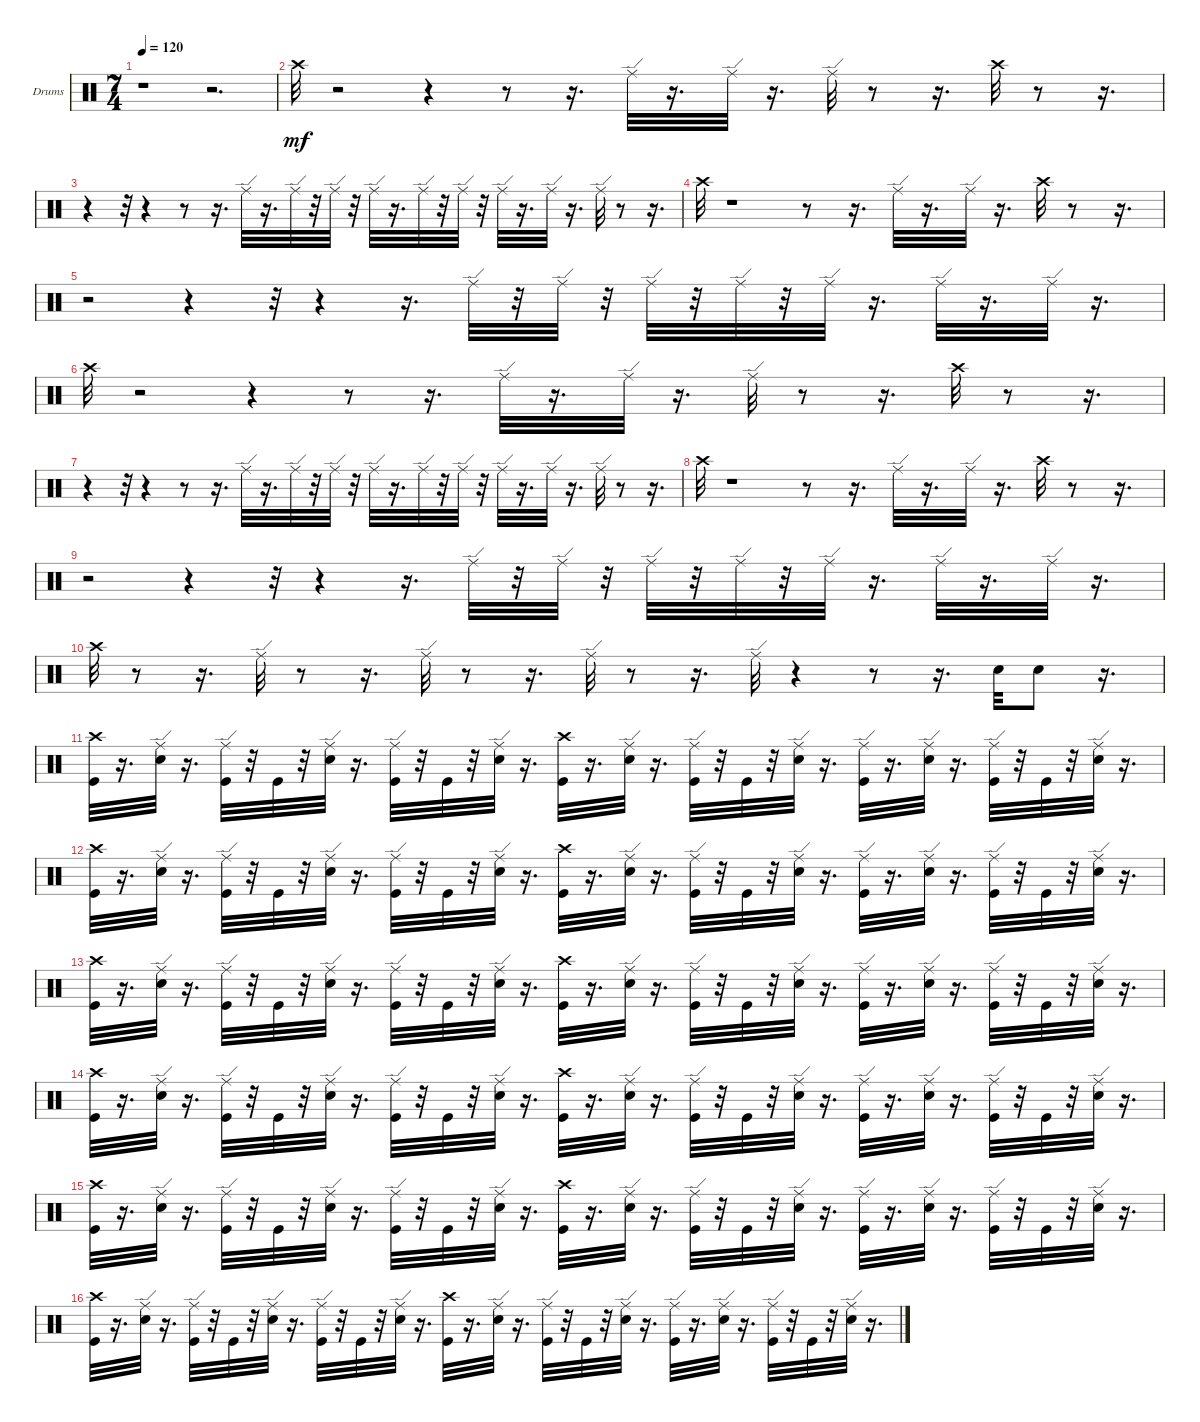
\bracketExtendMode groupsimilarinstruments
\firstSystemTrackNameOrientation horizontal
\otherSystemsTrackNameOrientation horizontal
\track ("" "Drums") {instrument percussion}
\staff {score}
\articulation defaults
\ts (7 4)
\tempo 120
\clef neutral
\ks c
r.1{dy mf} r.2{d} |
"Crash high (hit)".32 r.2 r.4 r.8 r.16{d} "Ride (edge)".32 r.16{d} "Ride (edge)".32 r.16{d} "Ride (edge)".32 r.8 r.16{d} "Crash high (hit)".32 r.8 r.16{d} |
r.4 r.32 r.4 r.8 r.16{d} "Ride (edge)".32 r.16{d} "Ride (edge)".32 r.32 "Ride (edge)".32 r.32 "Ride (edge)".32 r.16{d} "Ride (edge)".32 r.32 "Ride (edge)".32 r.32 "Ride (edge)".32 r.16{d} "Ride (edge)".32 r.16{d} "Ride (edge)".32 r.8 r.16{d} |
"Crash high (hit)".32 r.1 r.8 r.16{d} "Ride (edge)".32 r.16{d} "Ride (edge)".32 r.16{d} "Crash high (hit)".32 r.8 r.16{d} |
r.2 r.4 r.32 r.4 r.16{d} "Ride (edge)".32 r.32 "Ride (edge)".32 r.32 "Ride (edge)".32 r.32 "Ride (edge)".32 r.32 "Ride (edge)".32 r.16{d} "Ride (edge)".32 r.16{d} "Ride (edge)".32 r.16{d} |
"Crash high (hit)".32 r.2 r.4 r.8 r.16{d} "Ride (edge)".32 r.16{d} "Ride (edge)".32 r.16{d} "Ride (edge)".32 r.8 r.16{d} "Crash high (hit)".32 r.8 r.16{d} |
r.4 r.32 r.4 r.8 r.16{d} "Ride (edge)".32 r.16{d} "Ride (edge)".32 r.32 "Ride (edge)".32 r.32 "Ride (edge)".32 r.16{d} "Ride (edge)".32 r.32 "Ride (edge)".32 r.32 "Ride (edge)".32 r.16{d} "Ride (edge)".32 r.16{d} "Ride (edge)".32 r.8 r.16{d} |
"Crash high (hit)".32 r.1 r.8 r.16{d} "Ride (edge)".32 r.16{d} "Ride (edge)".32 r.16{d} "Crash high (hit)".32 r.8 r.16{d} |
r.2 r.4 r.32 r.4 r.16{d} "Ride (edge)".32 r.32 "Ride (edge)".32 r.32 "Ride (edge)".32 r.32 "Ride (edge)".32 r.32 "Ride (edge)".32 r.16{d} "Ride (edge)".32 r.16{d} "Ride (edge)".32 r.16{d} |
"Crash high (hit)".32 r.8 r.16{d} "Ride (edge)".32 r.8 r.16{d} "Ride (edge)".32 r.8 r.16{d} "Ride (edge)".32 r.8 r.16{d} "Ride (edge)".32 r.4 r.8 r.16{d} "Snare (hit) 2".32 "Snare (hit) 2".8 r.16{d} |
("Crash high (hit)" "Kick (hit)").32 r.16{d} ("Snare (hit) 2" "Ride (edge)").32 r.16{d} ("Kick (hit)" "Ride (edge)").32 r.32 "Kick (hit)".32 r.32 ("Snare (hit) 2" "Ride (edge)").32 r.16{d} ("Kick (hit)" "Ride (edge)").32 r.32 "Kick (hit)".32 r.32 ("Ride (edge)" "Snare (hit) 2").32 r.16{d} ("Crash high (hit)" "Kick (hit)").32 r.16{d} ("Snare (hit) 2" "Ride (edge)").32 r.16{d} ("Kick (hit)" "Ride (edge)").32 r.32 "Kick (hit)".32 r.32 ("Snare (hit) 2" "Ride (edge)").32 r.16{d} ("Kick (hit)" "Ride (edge)").32 r.16{d} ("Snare (hit) 2" "Ride (edge)").32 r.16{d} ("Kick (hit)" "Ride (edge)").32 r.32 "Kick (hit)".32 r.32 ("Snare (hit) 2" "Ride (edge)").32 r.16{d} |
("Crash high (hit)" "Kick (hit)").32 r.16{d} ("Snare (hit) 2" "Ride (edge)").32 r.16{d} ("Kick (hit)" "Ride (edge)").32 r.32 "Kick (hit)".32 r.32 ("Snare (hit) 2" "Ride (edge)").32 r.16{d} ("Kick (hit)" "Ride (edge)").32 r.32 "Kick (hit)".32 r.32 ("Ride (edge)" "Snare (hit) 2").32 r.16{d} ("Crash high (hit)" "Kick (hit)").32 r.16{d} ("Snare (hit) 2" "Ride (edge)").32 r.16{d} ("Kick (hit)" "Ride (edge)").32 r.32 "Kick (hit)".32 r.32 ("Snare (hit) 2" "Ride (edge)").32 r.16{d} ("Kick (hit)" "Ride (edge)").32 r.16{d} ("Snare (hit) 2" "Ride (edge)").32 r.16{d} ("Kick (hit)" "Ride (edge)").32 r.32 "Kick (hit)".32 r.32 ("Snare (hit) 2" "Ride (edge)").32 r.16{d} |
("Crash high (hit)" "Kick (hit)").32 r.16{d} ("Snare (hit) 2" "Ride (edge)").32 r.16{d} ("Kick (hit)" "Ride (edge)").32 r.32 "Kick (hit)".32 r.32 ("Snare (hit) 2" "Ride (edge)").32 r.16{d} ("Kick (hit)" "Ride (edge)").32 r.32 "Kick (hit)".32 r.32 ("Ride (edge)" "Snare (hit) 2").32 r.16{d} ("Crash high (hit)" "Kick (hit)").32 r.16{d} ("Snare (hit) 2" "Ride (edge)").32 r.16{d} ("Kick (hit)" "Ride (edge)").32 r.32 "Kick (hit)".32 r.32 ("Snare (hit) 2" "Ride (edge)").32 r.16{d} ("Kick (hit)" "Ride (edge)").32 r.16{d} ("Snare (hit) 2" "Ride (edge)").32 r.16{d} ("Kick (hit)" "Ride (edge)").32 r.32 "Kick (hit)".32 r.32 ("Snare (hit) 2" "Ride (edge)").32 r.16{d} |
("Crash high (hit)" "Kick (hit)").32 r.16{d} ("Snare (hit) 2" "Ride (edge)").32 r.16{d} ("Kick (hit)" "Ride (edge)").32 r.32 "Kick (hit)".32 r.32 ("Snare (hit) 2" "Ride (edge)").32 r.16{d} ("Kick (hit)" "Ride (edge)").32 r.32 "Kick (hit)".32 r.32 ("Ride (edge)" "Snare (hit) 2").32 r.16{d} ("Crash high (hit)" "Kick (hit)").32 r.16{d} ("Snare (hit) 2" "Ride (edge)").32 r.16{d} ("Kick (hit)" "Ride (edge)").32 r.32 "Kick (hit)".32 r.32 ("Snare (hit) 2" "Ride (edge)").32 r.16{d} ("Kick (hit)" "Ride (edge)").32 r.16{d} ("Snare (hit) 2" "Ride (edge)").32 r.16{d} ("Kick (hit)" "Ride (edge)").32 r.32 "Kick (hit)".32 r.32 ("Snare (hit) 2" "Ride (edge)").32 r.16{d} |
("Crash high (hit)" "Kick (hit)").32 r.16{d} ("Snare (hit) 2" "Ride (edge)").32 r.16{d} ("Kick (hit)" "Ride (edge)").32 r.32 "Kick (hit)".32 r.32 ("Snare (hit) 2" "Ride (edge)").32 r.16{d} ("Kick (hit)" "Ride (edge)").32 r.32 "Kick (hit)".32 r.32 ("Ride (edge)" "Snare (hit) 2").32 r.16{d} ("Crash high (hit)" "Kick (hit)").32 r.16{d} ("Snare (hit) 2" "Ride (edge)").32 r.16{d} ("Kick (hit)" "Ride (edge)").32 r.32 "Kick (hit)".32 r.32 ("Snare (hit) 2" "Ride (edge)").32 r.16{d} ("Kick (hit)" "Ride (edge)").32 r.16{d} ("Snare (hit) 2" "Ride (edge)").32 r.16{d} ("Kick (hit)" "Ride (edge)").32 r.32 "Kick (hit)".32 r.32 ("Snare (hit) 2" "Ride (edge)").32 r.16{d} |
("Crash high (hit)" "Kick (hit)").32 r.16{d} ("Snare (hit) 2" "Ride (edge)").32 r.16{d} ("Kick (hit)" "Ride (edge)").32 r.32 "Kick (hit)".32 r.32 ("Snare (hit) 2" "Ride (edge)").32 r.16{d} ("Kick (hit)" "Ride (edge)").32 r.32 "Kick (hit)".32 r.32 ("Ride (edge)" "Snare (hit) 2").32 r.16{d} ("Crash high (hit)" "Kick (hit)").32 r.16{d} ("Snare (hit) 2" "Ride (edge)").32 r.16{d} ("Kick (hit)" "Ride (edge)").32 r.32 "Kick (hit)".32 r.32 ("Snare (hit) 2" "Ride (edge)").32 r.16{d} ("Kick (hit)" "Ride (edge)").32 r.16{d} ("Snare (hit) 2" "Ride (edge)").32 r.16{d} ("Kick (hit)" "Ride (edge)").32 r.32 "Kick (hit)".32 r.32 ("Snare (hit) 2" "Ride (edge)").32 r.16{d}
